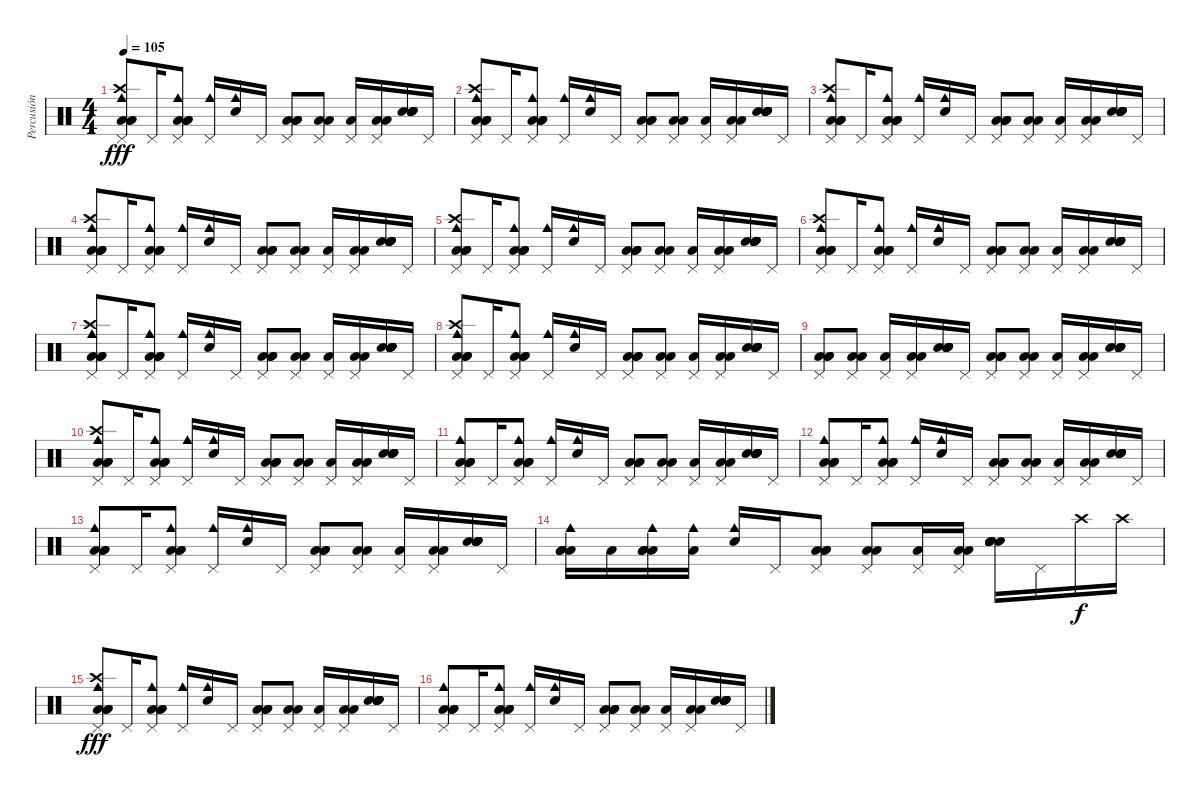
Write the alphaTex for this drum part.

\track ("Percusión" "Percusión") {instrument percussion}
\staff {score}
\articulation defaults
\ts (4 4)
\tempo 105
\clef neutral
\ks c
("Cowbell medium (hit)" "Crash high (hit)" "Low Tom (hit)" "Pedal Hi-Hat (hit)" "Low Tom (hit)" "Low Tom (hit)").8{dy fff} "Pedal Hi-Hat (hit)".16 ("Cowbell medium (hit)" "Low Tom (hit)" "Pedal Hi-Hat (hit)" "Low Tom (hit)" "Low Tom (hit)").8 ("Cowbell medium (hit)" "Pedal Hi-Hat (hit)").16 ("Cowbell medium (hit)" "Snare (hit) 2").16 "Pedal Hi-Hat (hit)".16 ("Low Tom (hit)" "Pedal Hi-Hat (hit)" "Low Tom (hit)" "Low Tom (hit)").8 ("Pedal Hi-Hat (hit)" "Low Tom (hit)" "Low Tom (hit)").8 ("Low Tom (hit)" "Pedal Hi-Hat (hit)").16 ("Pedal Hi-Hat (hit)" "Low Tom (hit)" "Low Tom (hit)").16 ("Snare (hit) 2" "Snare (hit) 2" "Snare (hit) 2" "Snare (hit) 2" "Snare (hit) 2" "Snare (hit) 2").16 "Pedal Hi-Hat (hit)".16 |
("Cowbell medium (hit)" "Crash high (hit)" "Low Tom (hit)" "Pedal Hi-Hat (hit)" "Low Tom (hit)" "Low Tom (hit)").8 "Pedal Hi-Hat (hit)".16 ("Cowbell medium (hit)" "Low Tom (hit)" "Pedal Hi-Hat (hit)" "Low Tom (hit)" "Low Tom (hit)").8 ("Cowbell medium (hit)" "Pedal Hi-Hat (hit)").16 ("Cowbell medium (hit)" "Snare (hit) 2").16 "Pedal Hi-Hat (hit)".16 ("Low Tom (hit)" "Pedal Hi-Hat (hit)" "Low Tom (hit)" "Low Tom (hit)").8 ("Pedal Hi-Hat (hit)" "Low Tom (hit)" "Low Tom (hit)").8 ("Low Tom (hit)" "Pedal Hi-Hat (hit)").16 ("Pedal Hi-Hat (hit)" "Low Tom (hit)" "Low Tom (hit)").16 ("Snare (hit) 2" "Snare (hit) 2" "Snare (hit) 2" "Snare (hit) 2" "Snare (hit) 2" "Snare (hit) 2").16 "Pedal Hi-Hat (hit)".16 |
("Cowbell medium (hit)" "Crash high (hit)" "Low Tom (hit)" "Pedal Hi-Hat (hit)" "Low Tom (hit)" "Low Tom (hit)").8 "Pedal Hi-Hat (hit)".16 ("Cowbell medium (hit)" "Low Tom (hit)" "Pedal Hi-Hat (hit)" "Low Tom (hit)" "Low Tom (hit)").8 ("Cowbell medium (hit)" "Pedal Hi-Hat (hit)").16 ("Cowbell medium (hit)" "Snare (hit) 2").16 "Pedal Hi-Hat (hit)".16 ("Low Tom (hit)" "Pedal Hi-Hat (hit)" "Low Tom (hit)" "Low Tom (hit)").8 ("Pedal Hi-Hat (hit)" "Low Tom (hit)" "Low Tom (hit)").8 ("Low Tom (hit)" "Pedal Hi-Hat (hit)").16 ("Pedal Hi-Hat (hit)" "Low Tom (hit)" "Low Tom (hit)").16 ("Snare (hit) 2" "Snare (hit) 2" "Snare (hit) 2" "Snare (hit) 2" "Snare (hit) 2" "Snare (hit) 2").16 "Pedal Hi-Hat (hit)".16 |
("Cowbell medium (hit)" "Crash high (hit)" "Low Tom (hit)" "Pedal Hi-Hat (hit)" "Low Tom (hit)" "Low Tom (hit)").8 "Pedal Hi-Hat (hit)".16 ("Cowbell medium (hit)" "Low Tom (hit)" "Pedal Hi-Hat (hit)" "Low Tom (hit)" "Low Tom (hit)").8 ("Cowbell medium (hit)" "Pedal Hi-Hat (hit)").16 ("Cowbell medium (hit)" "Snare (hit) 2").16 "Pedal Hi-Hat (hit)".16 ("Low Tom (hit)" "Pedal Hi-Hat (hit)" "Low Tom (hit)" "Low Tom (hit)").8 ("Pedal Hi-Hat (hit)" "Low Tom (hit)" "Low Tom (hit)").8 ("Low Tom (hit)" "Pedal Hi-Hat (hit)").16 ("Pedal Hi-Hat (hit)" "Low Tom (hit)" "Low Tom (hit)").16 ("Snare (hit) 2" "Snare (hit) 2" "Snare (hit) 2" "Snare (hit) 2" "Snare (hit) 2" "Snare (hit) 2").16 "Pedal Hi-Hat (hit)".16 |
("Cowbell medium (hit)" "Crash high (hit)" "Low Tom (hit)" "Pedal Hi-Hat (hit)" "Low Tom (hit)" "Low Tom (hit)").8 "Pedal Hi-Hat (hit)".16 ("Cowbell medium (hit)" "Low Tom (hit)" "Pedal Hi-Hat (hit)" "Low Tom (hit)" "Low Tom (hit)").8 ("Cowbell medium (hit)" "Pedal Hi-Hat (hit)").16 ("Cowbell medium (hit)" "Snare (hit) 2").16 "Pedal Hi-Hat (hit)".16 ("Low Tom (hit)" "Pedal Hi-Hat (hit)" "Low Tom (hit)" "Low Tom (hit)").8 ("Pedal Hi-Hat (hit)" "Low Tom (hit)" "Low Tom (hit)").8 ("Low Tom (hit)" "Pedal Hi-Hat (hit)").16 ("Pedal Hi-Hat (hit)" "Low Tom (hit)" "Low Tom (hit)").16 ("Snare (hit) 2" "Snare (hit) 2" "Snare (hit) 2" "Snare (hit) 2" "Snare (hit) 2" "Snare (hit) 2").16 "Pedal Hi-Hat (hit)".16 |
("Cowbell medium (hit)" "Crash high (hit)" "Low Tom (hit)" "Pedal Hi-Hat (hit)" "Low Tom (hit)" "Low Tom (hit)").8 "Pedal Hi-Hat (hit)".16 ("Cowbell medium (hit)" "Low Tom (hit)" "Pedal Hi-Hat (hit)" "Low Tom (hit)" "Low Tom (hit)").8 ("Cowbell medium (hit)" "Pedal Hi-Hat (hit)").16 ("Cowbell medium (hit)" "Snare (hit) 2").16 "Pedal Hi-Hat (hit)".16 ("Low Tom (hit)" "Pedal Hi-Hat (hit)" "Low Tom (hit)" "Low Tom (hit)").8 ("Pedal Hi-Hat (hit)" "Low Tom (hit)" "Low Tom (hit)").8 ("Low Tom (hit)" "Pedal Hi-Hat (hit)").16 ("Pedal Hi-Hat (hit)" "Low Tom (hit)" "Low Tom (hit)").16 ("Snare (hit) 2" "Snare (hit) 2" "Snare (hit) 2" "Snare (hit) 2" "Snare (hit) 2" "Snare (hit) 2").16 "Pedal Hi-Hat (hit)".16 |
("Cowbell medium (hit)" "Crash high (hit)" "Low Tom (hit)" "Pedal Hi-Hat (hit)" "Low Tom (hit)" "Low Tom (hit)").8 "Pedal Hi-Hat (hit)".16 ("Cowbell medium (hit)" "Low Tom (hit)" "Pedal Hi-Hat (hit)" "Low Tom (hit)" "Low Tom (hit)").8 ("Cowbell medium (hit)" "Pedal Hi-Hat (hit)").16 ("Cowbell medium (hit)" "Snare (hit) 2").16 "Pedal Hi-Hat (hit)".16 ("Low Tom (hit)" "Pedal Hi-Hat (hit)" "Low Tom (hit)" "Low Tom (hit)").8 ("Pedal Hi-Hat (hit)" "Low Tom (hit)" "Low Tom (hit)").8 ("Low Tom (hit)" "Pedal Hi-Hat (hit)").16 ("Pedal Hi-Hat (hit)" "Low Tom (hit)" "Low Tom (hit)").16 ("Snare (hit) 2" "Snare (hit) 2" "Snare (hit) 2" "Snare (hit) 2" "Snare (hit) 2" "Snare (hit) 2").16 "Pedal Hi-Hat (hit)".16 |
("Cowbell medium (hit)" "Crash high (hit)" "Low Tom (hit)" "Pedal Hi-Hat (hit)" "Low Tom (hit)" "Low Tom (hit)").8 "Pedal Hi-Hat (hit)".16 ("Cowbell medium (hit)" "Low Tom (hit)" "Pedal Hi-Hat (hit)" "Low Tom (hit)" "Low Tom (hit)").8 ("Cowbell medium (hit)" "Pedal Hi-Hat (hit)").16 ("Cowbell medium (hit)" "Snare (hit) 2").16 "Pedal Hi-Hat (hit)".16 ("Low Tom (hit)" "Pedal Hi-Hat (hit)" "Low Tom (hit)" "Low Tom (hit)").8 ("Pedal Hi-Hat (hit)" "Low Tom (hit)" "Low Tom (hit)").8 ("Low Tom (hit)" "Pedal Hi-Hat (hit)").16 ("Pedal Hi-Hat (hit)" "Low Tom (hit)" "Low Tom (hit)").16 ("Snare (hit) 2" "Snare (hit) 2" "Snare (hit) 2" "Snare (hit) 2" "Snare (hit) 2" "Snare (hit) 2").16 "Pedal Hi-Hat (hit)".16 |
("Low Tom (hit)" "Pedal Hi-Hat (hit)" "Low Tom (hit)" "Low Tom (hit)").8 ("Pedal Hi-Hat (hit)" "Low Tom (hit)" "Low Tom (hit)").8 ("Low Tom (hit)" "Pedal Hi-Hat (hit)").16 ("Pedal Hi-Hat (hit)" "Low Tom (hit)" "Low Tom (hit)").16 ("Snare (hit) 2" "Snare (hit) 2" "Snare (hit) 2" "Snare (hit) 2" "Snare (hit) 2" "Snare (hit) 2").16 "Pedal Hi-Hat (hit)".16 ("Low Tom (hit)" "Pedal Hi-Hat (hit)" "Low Tom (hit)" "Low Tom (hit)").8 ("Pedal Hi-Hat (hit)" "Low Tom (hit)" "Low Tom (hit)").8 ("Low Tom (hit)" "Pedal Hi-Hat (hit)").16 ("Pedal Hi-Hat (hit)" "Low Tom (hit)" "Low Tom (hit)").16 ("Snare (hit) 2" "Snare (hit) 2" "Snare (hit) 2" "Snare (hit) 2" "Snare (hit) 2" "Snare (hit) 2").16 "Pedal Hi-Hat (hit)".16 |
("Cowbell medium (hit)" "Crash high (hit)" "Low Tom (hit)" "Pedal Hi-Hat (hit)" "Low Tom (hit)" "Low Tom (hit)").8 "Pedal Hi-Hat (hit)".16 ("Cowbell medium (hit)" "Low Tom (hit)" "Pedal Hi-Hat (hit)" "Low Tom (hit)" "Low Tom (hit)").8 ("Cowbell medium (hit)" "Pedal Hi-Hat (hit)").16 ("Cowbell medium (hit)" "Snare (hit) 2").16 "Pedal Hi-Hat (hit)".16 ("Low Tom (hit)" "Pedal Hi-Hat (hit)" "Low Tom (hit)" "Low Tom (hit)").8 ("Pedal Hi-Hat (hit)" "Low Tom (hit)" "Low Tom (hit)").8 ("Low Tom (hit)" "Pedal Hi-Hat (hit)").16 ("Pedal Hi-Hat (hit)" "Low Tom (hit)" "Low Tom (hit)").16 ("Snare (hit) 2" "Snare (hit) 2" "Snare (hit) 2" "Snare (hit) 2" "Snare (hit) 2" "Snare (hit) 2").16 "Pedal Hi-Hat (hit)".16 |
("Cowbell medium (hit)" "Low Tom (hit)" "Pedal Hi-Hat (hit)" "Low Tom (hit)" "Low Tom (hit)").8 "Pedal Hi-Hat (hit)".16 ("Cowbell medium (hit)" "Low Tom (hit)" "Pedal Hi-Hat (hit)" "Low Tom (hit)" "Low Tom (hit)").8 ("Cowbell medium (hit)" "Pedal Hi-Hat (hit)").16 ("Cowbell medium (hit)" "Snare (hit) 2").16 "Pedal Hi-Hat (hit)".16 ("Low Tom (hit)" "Pedal Hi-Hat (hit)" "Low Tom (hit)" "Low Tom (hit)").8 ("Pedal Hi-Hat (hit)" "Low Tom (hit)" "Low Tom (hit)").8 ("Low Tom (hit)" "Pedal Hi-Hat (hit)").16 ("Pedal Hi-Hat (hit)" "Low Tom (hit)" "Low Tom (hit)").16 ("Snare (hit) 2" "Snare (hit) 2" "Snare (hit) 2" "Snare (hit) 2" "Snare (hit) 2" "Snare (hit) 2").16 "Pedal Hi-Hat (hit)".16 |
("Cowbell medium (hit)" "Low Tom (hit)" "Pedal Hi-Hat (hit)" "Low Tom (hit)" "Low Tom (hit)").8 "Pedal Hi-Hat (hit)".16 ("Cowbell medium (hit)" "Low Tom (hit)" "Pedal Hi-Hat (hit)" "Low Tom (hit)" "Low Tom (hit)").8 ("Cowbell medium (hit)" "Pedal Hi-Hat (hit)").16 ("Cowbell medium (hit)" "Snare (hit) 2").16 "Pedal Hi-Hat (hit)".16 ("Low Tom (hit)" "Pedal Hi-Hat (hit)" "Low Tom (hit)" "Low Tom (hit)").8 ("Pedal Hi-Hat (hit)" "Low Tom (hit)" "Low Tom (hit)").8 ("Low Tom (hit)" "Pedal Hi-Hat (hit)").16 ("Pedal Hi-Hat (hit)" "Low Tom (hit)" "Low Tom (hit)").16 ("Snare (hit) 2" "Snare (hit) 2" "Snare (hit) 2" "Snare (hit) 2" "Snare (hit) 2" "Snare (hit) 2").16 "Pedal Hi-Hat (hit)".16 |
("Cowbell medium (hit)" "Low Tom (hit)" "Pedal Hi-Hat (hit)" "Low Tom (hit)" "Low Tom (hit)").8 "Pedal Hi-Hat (hit)".16 ("Cowbell medium (hit)" "Low Tom (hit)" "Pedal Hi-Hat (hit)" "Low Tom (hit)" "Low Tom (hit)").8 ("Cowbell medium (hit)" "Pedal Hi-Hat (hit)").16 ("Cowbell medium (hit)" "Snare (hit) 2").16 "Pedal Hi-Hat (hit)".16 ("Low Tom (hit)" "Pedal Hi-Hat (hit)" "Low Tom (hit)" "Low Tom (hit)").8 ("Pedal Hi-Hat (hit)" "Low Tom (hit)" "Low Tom (hit)").8 ("Low Tom (hit)" "Pedal Hi-Hat (hit)").16 ("Pedal Hi-Hat (hit)" "Low Tom (hit)" "Low Tom (hit)").16 ("Snare (hit) 2" "Snare (hit) 2" "Snare (hit) 2" "Snare (hit) 2" "Snare (hit) 2" "Snare (hit) 2").16 "Pedal Hi-Hat (hit)".16 |
("Cowbell medium (hit)" "Low Tom (hit)" "Low Tom (hit)" "Low Tom (hit)" "Low Tom (hit)").16 "Low Tom (hit)".16 ("Cowbell medium (hit)" "Low Tom (hit)" "Low Tom (hit)" "Low Tom (hit)" "Low Tom (hit)").16 ("Cowbell medium (hit)" "Low Tom (hit)").16 ("Cowbell medium (hit)" "Snare (hit) 2").16 "Pedal Hi-Hat (hit)".16 ("Low Tom (hit)" "Pedal Hi-Hat (hit)" "Low Tom (hit)" "Low Tom (hit)").8 ("Pedal Hi-Hat (hit)" "Low Tom (hit)" "Low Tom (hit)").8 ("Low Tom (hit)" "Pedal Hi-Hat (hit)").16 ("Pedal Hi-Hat (hit)" "Low Tom (hit)" "Low Tom (hit)").16 ("Snare (hit) 2" "Snare (hit) 2" "Snare (hit) 2" "Snare (hit) 2" "Snare (hit) 2" "Snare (hit) 2").16 "Pedal Hi-Hat (hit)".16 "Crash high (hit)".16{dy f} "Crash high (hit)".16 |
("Cowbell medium (hit)" "Crash high (hit)" "Low Tom (hit)" "Pedal Hi-Hat (hit)" "Low Tom (hit)" "Low Tom (hit)").8{dy fff} "Pedal Hi-Hat (hit)".16 ("Cowbell medium (hit)" "Low Tom (hit)" "Pedal Hi-Hat (hit)" "Low Tom (hit)" "Low Tom (hit)").8 ("Cowbell medium (hit)" "Pedal Hi-Hat (hit)").16 ("Cowbell medium (hit)" "Snare (hit) 2").16 "Pedal Hi-Hat (hit)".16 ("Low Tom (hit)" "Pedal Hi-Hat (hit)" "Low Tom (hit)" "Low Tom (hit)").8 ("Pedal Hi-Hat (hit)" "Low Tom (hit)" "Low Tom (hit)").8 ("Low Tom (hit)" "Pedal Hi-Hat (hit)").16 ("Pedal Hi-Hat (hit)" "Low Tom (hit)" "Low Tom (hit)").16 ("Snare (hit) 2" "Snare (hit) 2" "Snare (hit) 2" "Snare (hit) 2" "Snare (hit) 2" "Snare (hit) 2").16 "Pedal Hi-Hat (hit)".16 |
("Cowbell medium (hit)" "Low Tom (hit)" "Pedal Hi-Hat (hit)" "Low Tom (hit)" "Low Tom (hit)").8 "Pedal Hi-Hat (hit)".16 ("Cowbell medium (hit)" "Low Tom (hit)" "Pedal Hi-Hat (hit)" "Low Tom (hit)" "Low Tom (hit)").8 ("Cowbell medium (hit)" "Pedal Hi-Hat (hit)").16 ("Cowbell medium (hit)" "Snare (hit) 2").16 "Pedal Hi-Hat (hit)".16 ("Low Tom (hit)" "Pedal Hi-Hat (hit)" "Low Tom (hit)" "Low Tom (hit)").8 ("Pedal Hi-Hat (hit)" "Low Tom (hit)" "Low Tom (hit)").8 ("Low Tom (hit)" "Pedal Hi-Hat (hit)").16 ("Pedal Hi-Hat (hit)" "Low Tom (hit)" "Low Tom (hit)").16 ("Snare (hit) 2" "Snare (hit) 2" "Snare (hit) 2" "Snare (hit) 2" "Snare (hit) 2" "Snare (hit) 2").16 "Pedal Hi-Hat (hit)".16
